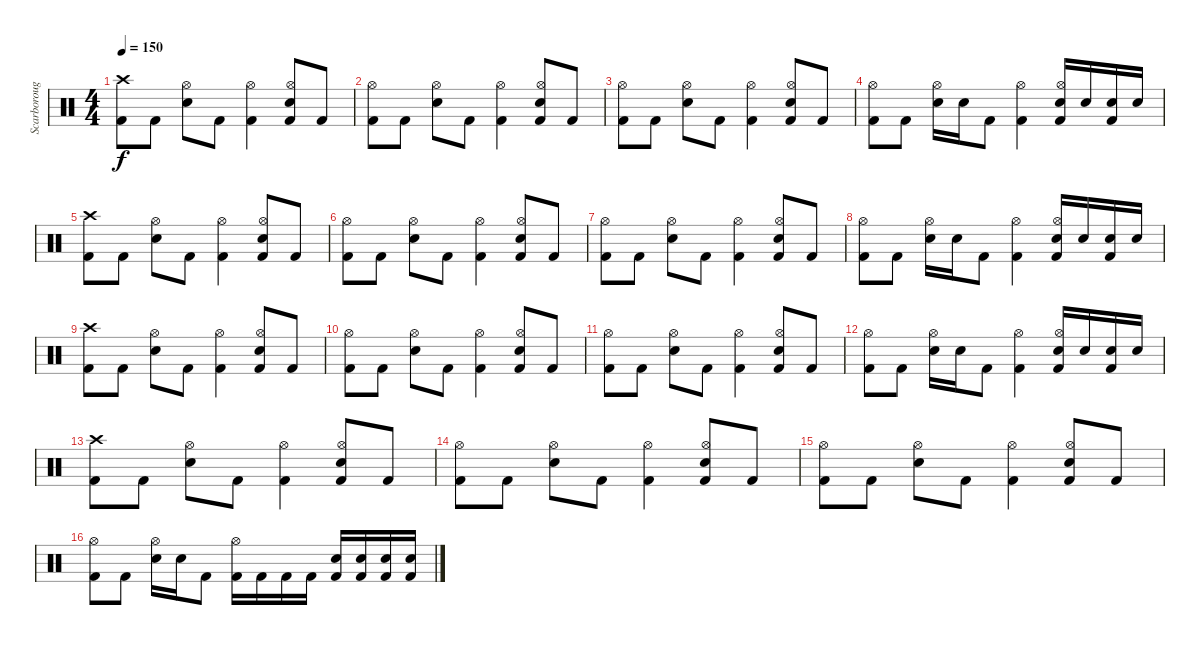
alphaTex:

\track ("Scarborough" "Scarboroug") {instrument percussion}
\staff {score}
\articulation defaults
\ts (4 4)
\tempo 150
\clef neutral
\ks c
("Crash high (hit)" "Kick (hit) 2").8{dy f} "Kick (hit) 2".8 ("Hi-Hat (open)" "Snare (hit) 2").8 "Kick (hit) 2".8 ("Hi-Hat (open)" "Kick (hit) 2").4 ("Hi-Hat (open)" "Kick (hit) 2" "Snare (hit) 2").8 "Kick (hit) 2".8 |
("Hi-Hat (open)" "Kick (hit) 2").8 "Kick (hit) 2".8 ("Hi-Hat (open)" "Snare (hit) 2").8 "Kick (hit) 2".8 ("Hi-Hat (open)" "Kick (hit) 2").4 ("Hi-Hat (open)" "Kick (hit) 2" "Snare (hit) 2").8 "Kick (hit) 2".8 |
("Hi-Hat (open)" "Kick (hit) 2").8 "Kick (hit) 2".8 ("Hi-Hat (open)" "Snare (hit) 2").8 "Kick (hit) 2".8 ("Hi-Hat (open)" "Kick (hit) 2").4 ("Hi-Hat (open)" "Kick (hit) 2" "Snare (hit) 2").8 "Kick (hit) 2".8 |
("Hi-Hat (open)" "Kick (hit) 2").8 "Kick (hit) 2".8 ("Hi-Hat (open)" "Snare (hit) 2").16 "Snare (hit) 2".16 "Kick (hit) 2".8 ("Hi-Hat (open)" "Kick (hit) 2").4 ("Hi-Hat (open)" "Kick (hit) 2" "Snare (hit) 2").16 "Snare (hit) 2".16 ("Kick (hit) 2" "Snare (hit) 2").16 "Snare (hit) 2".16 |
("Crash high (hit)" "Kick (hit) 2").8 "Kick (hit) 2".8 ("Hi-Hat (open)" "Snare (hit) 2").8 "Kick (hit) 2".8 ("Hi-Hat (open)" "Kick (hit) 2").4 ("Hi-Hat (open)" "Kick (hit) 2" "Snare (hit) 2").8 "Kick (hit) 2".8 |
("Hi-Hat (open)" "Kick (hit) 2").8 "Kick (hit) 2".8 ("Hi-Hat (open)" "Snare (hit) 2").8 "Kick (hit) 2".8 ("Hi-Hat (open)" "Kick (hit) 2").4 ("Hi-Hat (open)" "Kick (hit) 2" "Snare (hit) 2").8 "Kick (hit) 2".8 |
("Hi-Hat (open)" "Kick (hit) 2").8 "Kick (hit) 2".8 ("Hi-Hat (open)" "Snare (hit) 2").8 "Kick (hit) 2".8 ("Hi-Hat (open)" "Kick (hit) 2").4 ("Hi-Hat (open)" "Kick (hit) 2" "Snare (hit) 2").8 "Kick (hit) 2".8 |
("Hi-Hat (open)" "Kick (hit) 2").8 "Kick (hit) 2".8 ("Hi-Hat (open)" "Snare (hit) 2").16 "Snare (hit) 2".16 "Kick (hit) 2".8 ("Hi-Hat (open)" "Kick (hit) 2").4 ("Hi-Hat (open)" "Kick (hit) 2" "Snare (hit) 2").16 "Snare (hit) 2".16 ("Kick (hit) 2" "Snare (hit) 2").16 "Snare (hit) 2".16 |
("Crash high (hit)" "Kick (hit) 2").8 "Kick (hit) 2".8 ("Hi-Hat (open)" "Snare (hit) 2").8 "Kick (hit) 2".8 ("Hi-Hat (open)" "Kick (hit) 2").4 ("Hi-Hat (open)" "Kick (hit) 2" "Snare (hit) 2").8 "Kick (hit) 2".8 |
("Hi-Hat (open)" "Kick (hit) 2").8 "Kick (hit) 2".8 ("Hi-Hat (open)" "Snare (hit) 2").8 "Kick (hit) 2".8 ("Hi-Hat (open)" "Kick (hit) 2").4 ("Hi-Hat (open)" "Kick (hit) 2" "Snare (hit) 2").8 "Kick (hit) 2".8 |
("Hi-Hat (open)" "Kick (hit) 2").8 "Kick (hit) 2".8 ("Hi-Hat (open)" "Snare (hit) 2").8 "Kick (hit) 2".8 ("Hi-Hat (open)" "Kick (hit) 2").4 ("Hi-Hat (open)" "Kick (hit) 2" "Snare (hit) 2").8 "Kick (hit) 2".8 |
("Hi-Hat (open)" "Kick (hit) 2").8 "Kick (hit) 2".8 ("Hi-Hat (open)" "Snare (hit) 2").16 "Snare (hit) 2".16 "Kick (hit) 2".8 ("Hi-Hat (open)" "Kick (hit) 2").4 ("Hi-Hat (open)" "Kick (hit) 2" "Snare (hit) 2").16 "Snare (hit) 2".16 ("Kick (hit) 2" "Snare (hit) 2").16 "Snare (hit) 2".16 |
("Crash high (hit)" "Kick (hit) 2").8 "Kick (hit) 2".8 ("Hi-Hat (open)" "Snare (hit) 2").8 "Kick (hit) 2".8 ("Hi-Hat (open)" "Kick (hit) 2").4 ("Hi-Hat (open)" "Kick (hit) 2" "Snare (hit) 2").8 "Kick (hit) 2".8 |
("Hi-Hat (open)" "Kick (hit) 2").8 "Kick (hit) 2".8 ("Hi-Hat (open)" "Snare (hit) 2").8 "Kick (hit) 2".8 ("Hi-Hat (open)" "Kick (hit) 2").4 ("Hi-Hat (open)" "Kick (hit) 2" "Snare (hit) 2").8 "Kick (hit) 2".8 |
("Hi-Hat (open)" "Kick (hit) 2").8 "Kick (hit) 2".8 ("Hi-Hat (open)" "Snare (hit) 2").8 "Kick (hit) 2".8 ("Hi-Hat (open)" "Kick (hit) 2").4 ("Hi-Hat (open)" "Kick (hit) 2" "Snare (hit) 2").8 "Kick (hit) 2".8 |
("Hi-Hat (open)" "Kick (hit) 2").8 "Kick (hit) 2".8 ("Hi-Hat (open)" "Snare (hit) 2").16 "Snare (hit) 2".16 "Kick (hit) 2".8 ("Hi-Hat (open)" "Kick (hit) 2").16 "Kick (hit) 2".16 "Kick (hit) 2".16 "Kick (hit) 2".16 ("Kick (hit) 2" "Snare (hit) 2").16 ("Kick (hit) 2" "Snare (hit) 2").16 ("Kick (hit) 2" "Snare (hit) 2").16 ("Kick (hit) 2" "Snare (hit) 2").16
